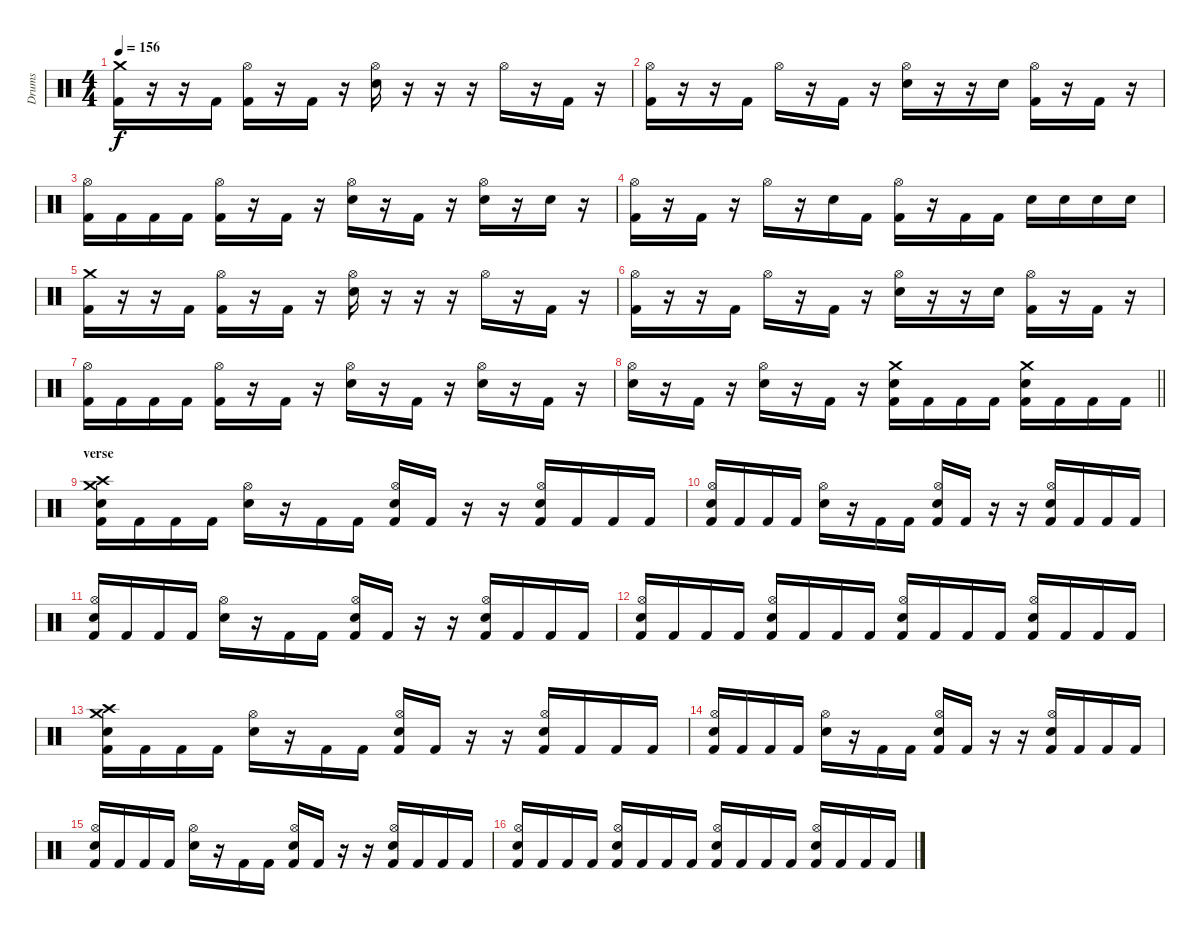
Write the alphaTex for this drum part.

\track ("Drums" "Drums") {instrument percussion}
\staff {score}
\articulation defaults
\ts (4 4)
\tempo 156
\clef neutral
\ks c
("Crash medium (hit)" "Kick (hit) 2").16{dy f} r.16 r.16 "Kick (hit) 2".16 ("Hi-Hat (open)" "Kick (hit) 2").16 r.16 "Kick (hit) 2".16 r.16 ("Hi-Hat (open)" "Snare (hit) 2").16 r.16 r.16 r.16 "Hi-Hat (open)".16 r.16 "Kick (hit) 2".16 r.16 |
("Hi-Hat (open)" "Kick (hit) 2").16 r.16 r.16 "Kick (hit) 2".16 "Hi-Hat (open)".16 r.16 "Kick (hit) 2".16 r.16 ("Hi-Hat (open)" "Snare (hit) 2").16 r.16 r.16 "Snare (hit) 2".16 ("Hi-Hat (open)" "Kick (hit) 2").16 r.16 "Kick (hit) 2".16 r.16 |
("Hi-Hat (open)" "Kick (hit) 2").16 "Kick (hit) 2".16 "Kick (hit) 2".16 "Kick (hit) 2".16 ("Hi-Hat (open)" "Kick (hit) 2").16 r.16 "Kick (hit) 2".16 r.16 ("Hi-Hat (open)" "Snare (hit) 2").16 r.16 "Kick (hit) 2".16 r.16 ("Hi-Hat (open)" "Snare (hit) 2").16 r.16 "Snare (hit) 2".16 r.16 |
("Hi-Hat (open)" "Kick (hit) 2").16 r.16 "Kick (hit) 2".16 r.16 "Hi-Hat (open)".16 r.16 "Snare (hit) 2".16 "Kick (hit) 2".16 ("Hi-Hat (open)" "Kick (hit) 2").16 r.16 "Kick (hit) 2".16 "Kick (hit) 2".16 "Snare (hit) 2".16 "Snare (hit) 2".16 "Snare (hit) 2".16 "Snare (hit) 2".16 |
("Crash medium (hit)" "Kick (hit) 2").16 r.16 r.16 "Kick (hit) 2".16 ("Hi-Hat (open)" "Kick (hit) 2").16 r.16 "Kick (hit) 2".16 r.16 ("Hi-Hat (open)" "Snare (hit) 2").16 r.16 r.16 r.16 "Hi-Hat (open)".16 r.16 "Kick (hit) 2".16 r.16 |
("Hi-Hat (open)" "Kick (hit) 2").16 r.16 r.16 "Kick (hit) 2".16 "Hi-Hat (open)".16 r.16 "Kick (hit) 2".16 r.16 ("Hi-Hat (open)" "Snare (hit) 2").16 r.16 r.16 "Snare (hit) 2".16 ("Hi-Hat (open)" "Kick (hit) 2").16 r.16 "Kick (hit) 2".16 r.16 |
("Hi-Hat (open)" "Kick (hit) 2").16 "Kick (hit) 2".16 "Kick (hit) 2".16 "Kick (hit) 2".16 ("Hi-Hat (open)" "Kick (hit) 2").16 r.16 "Kick (hit) 2".16 r.16 ("Hi-Hat (open)" "Snare (hit) 2").16 r.16 "Kick (hit) 2".16 r.16 ("Hi-Hat (open)" "Snare (hit) 2").16 r.16 "Kick (hit) 2".16 r.16 |
\barLineRight lightlight
("Hi-Hat (open)" "Snare (hit) 2").16 r.16 "Kick (hit) 2".16 r.16 ("Hi-Hat (open)" "Snare (hit) 2").16 r.16 "Kick (hit) 2".16 r.16 ("Crash medium (hit)" "Snare (hit) 2" "Kick (hit) 2").16 "Kick (hit) 2".16 "Kick (hit) 2".16 "Kick (hit) 2".16 ("Crash medium (hit)" "Snare (hit) 2" "Kick (hit) 2").16 "Kick (hit) 2".16 "Kick (hit) 2".16 "Kick (hit) 2".16 |
\section ("" "verse")
("Crash high (hit)" "Crash medium (hit)" "Snare (hit) 2" "Kick (hit) 2").16 "Kick (hit) 2".16 "Kick (hit) 2".16 "Kick (hit) 2".16 ("Hi-Hat (open)" "Snare (hit) 2").16 r.16 "Kick (hit) 2".16 "Kick (hit) 2".16 ("Hi-Hat (open)" "Snare (hit) 2" "Kick (hit) 2").16 "Kick (hit) 2".16 r.16 r.16 ("Hi-Hat (open)" "Snare (hit) 2" "Kick (hit) 2").16 "Kick (hit) 2".16 "Kick (hit) 2".16 "Kick (hit) 2".16 |
("Hi-Hat (open)" "Snare (hit) 2" "Kick (hit) 2").16 "Kick (hit) 2".16 "Kick (hit) 2".16 "Kick (hit) 2".16 ("Hi-Hat (open)" "Snare (hit) 2").16 r.16 "Kick (hit) 2".16 "Kick (hit) 2".16 ("Hi-Hat (open)" "Snare (hit) 2" "Kick (hit) 2").16 "Kick (hit) 2".16 r.16 r.16 ("Hi-Hat (open)" "Snare (hit) 2" "Kick (hit) 2").16 "Kick (hit) 2".16 "Kick (hit) 2".16 "Kick (hit) 2".16 |
("Hi-Hat (open)" "Snare (hit) 2" "Kick (hit) 2").16 "Kick (hit) 2".16 "Kick (hit) 2".16 "Kick (hit) 2".16 ("Hi-Hat (open)" "Snare (hit) 2").16 r.16 "Kick (hit) 2".16 "Kick (hit) 2".16 ("Hi-Hat (open)" "Snare (hit) 2" "Kick (hit) 2").16 "Kick (hit) 2".16 r.16 r.16 ("Hi-Hat (open)" "Snare (hit) 2" "Kick (hit) 2").16 "Kick (hit) 2".16 "Kick (hit) 2".16 "Kick (hit) 2".16 |
("Hi-Hat (open)" "Snare (hit) 2" "Kick (hit) 2").16 "Kick (hit) 2".16 "Kick (hit) 2".16 "Kick (hit) 2".16 ("Hi-Hat (open)" "Snare (hit) 2" "Kick (hit) 2").16 "Kick (hit) 2".16 "Kick (hit) 2".16 "Kick (hit) 2".16 ("Hi-Hat (open)" "Snare (hit) 2" "Kick (hit) 2").16 "Kick (hit) 2".16 "Kick (hit) 2".16 "Kick (hit) 2".16 ("Hi-Hat (open)" "Snare (hit) 2" "Kick (hit) 2").16 "Kick (hit) 2".16 "Kick (hit) 2".16 "Kick (hit) 2".16 |
("Crash high (hit)" "Crash medium (hit)" "Snare (hit) 2" "Kick (hit) 2").16 "Kick (hit) 2".16 "Kick (hit) 2".16 "Kick (hit) 2".16 ("Hi-Hat (open)" "Snare (hit) 2").16 r.16 "Kick (hit) 2".16 "Kick (hit) 2".16 ("Hi-Hat (open)" "Snare (hit) 2" "Kick (hit) 2").16 "Kick (hit) 2".16 r.16 r.16 ("Hi-Hat (open)" "Snare (hit) 2" "Kick (hit) 2").16 "Kick (hit) 2".16 "Kick (hit) 2".16 "Kick (hit) 2".16 |
("Hi-Hat (open)" "Snare (hit) 2" "Kick (hit) 2").16 "Kick (hit) 2".16 "Kick (hit) 2".16 "Kick (hit) 2".16 ("Hi-Hat (open)" "Snare (hit) 2").16 r.16 "Kick (hit) 2".16 "Kick (hit) 2".16 ("Hi-Hat (open)" "Snare (hit) 2" "Kick (hit) 2").16 "Kick (hit) 2".16 r.16 r.16 ("Hi-Hat (open)" "Snare (hit) 2" "Kick (hit) 2").16 "Kick (hit) 2".16 "Kick (hit) 2".16 "Kick (hit) 2".16 |
("Hi-Hat (open)" "Snare (hit) 2" "Kick (hit) 2").16 "Kick (hit) 2".16 "Kick (hit) 2".16 "Kick (hit) 2".16 ("Hi-Hat (open)" "Snare (hit) 2").16 r.16 "Kick (hit) 2".16 "Kick (hit) 2".16 ("Hi-Hat (open)" "Snare (hit) 2" "Kick (hit) 2").16 "Kick (hit) 2".16 r.16 r.16 ("Hi-Hat (open)" "Snare (hit) 2" "Kick (hit) 2").16 "Kick (hit) 2".16 "Kick (hit) 2".16 "Kick (hit) 2".16 |
("Hi-Hat (open)" "Snare (hit) 2" "Kick (hit) 2").16 "Kick (hit) 2".16 "Kick (hit) 2".16 "Kick (hit) 2".16 ("Hi-Hat (open)" "Snare (hit) 2" "Kick (hit) 2").16 "Kick (hit) 2".16 "Kick (hit) 2".16 "Kick (hit) 2".16 ("Hi-Hat (open)" "Snare (hit) 2" "Kick (hit) 2").16 "Kick (hit) 2".16 "Kick (hit) 2".16 "Kick (hit) 2".16 ("Hi-Hat (open)" "Snare (hit) 2" "Kick (hit) 2").16 "Kick (hit) 2".16 "Kick (hit) 2".16 "Kick (hit) 2".16
